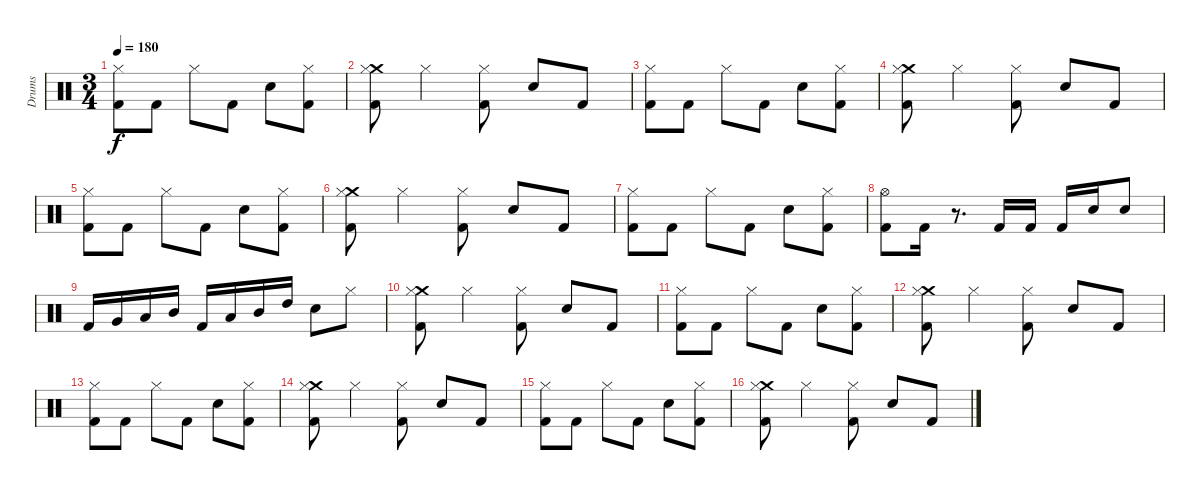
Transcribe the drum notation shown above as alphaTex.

\track ("Drums" "Drums") {instrument percussion}
\staff {score}
\articulation defaults
\ts (3 4)
\tempo 180
\clef neutral
\ks c
("Hi-Hat (closed)" "Kick (hit) 2").8{dy f} "Kick (hit) 2".8 "Hi-Hat (closed)".8 "Kick (hit) 2".8 "Snare (hit) 2".8 ("Hi-Hat (closed)" "Kick (hit) 2").8 |
("Crash medium (hit)" "Hi-Hat (closed)" "Kick (hit) 2").8 "Hi-Hat (closed)".4 ("Hi-Hat (closed)" "Kick (hit) 2").8 "Snare (hit) 2".8 "Kick (hit) 2".8 |
("Hi-Hat (closed)" "Kick (hit) 2").8 "Kick (hit) 2".8 "Hi-Hat (closed)".8 "Kick (hit) 2".8 "Snare (hit) 2".8 ("Hi-Hat (closed)" "Kick (hit) 2").8 |
("Crash medium (hit)" "Hi-Hat (closed)" "Kick (hit) 2").8 "Hi-Hat (closed)".4 ("Hi-Hat (closed)" "Kick (hit) 2").8 "Snare (hit) 2".8 "Kick (hit) 2".8 |
("Hi-Hat (closed)" "Kick (hit) 2").8 "Kick (hit) 2".8 "Hi-Hat (closed)".8 "Kick (hit) 2".8 "Snare (hit) 2".8 ("Hi-Hat (closed)" "Kick (hit) 2").8 |
("Crash medium (hit)" "Hi-Hat (closed)" "Kick (hit) 2").8 "Hi-Hat (closed)".4 ("Hi-Hat (closed)" "Kick (hit) 2").8 "Snare (hit) 2".8 "Kick (hit) 2".8 |
("Hi-Hat (closed)" "Kick (hit) 2").8 "Kick (hit) 2".8 "Hi-Hat (closed)".8 "Kick (hit) 2".8 "Snare (hit) 2".8 ("Hi-Hat (closed)" "Kick (hit) 2").8 |
("Hi-Hat (open)" "Kick (hit) 2").8 "Kick (hit) 2".16 r.8{d} "Kick (hit) 2".16 "Kick (hit) 2".16 "Kick (hit) 2".16 "Snare (hit) 2".16 "Snare (hit) 2".8 |
"Kick (hit) 2".16 "Very Low Tom (hit)".16 "Low Tom (hit)".16 "Mid Tom (hit)".16 "Kick (hit) 2".16 "Low Tom (hit)".16 "Mid Tom (hit)".16 "High Tom (hit)".16 "Snare (hit) 2".8 "Hi-Hat (closed)".8 |
("Crash medium (hit)" "Hi-Hat (closed)" "Kick (hit) 2").8 "Hi-Hat (closed)".4 ("Hi-Hat (closed)" "Kick (hit) 2").8 "Snare (hit) 2".8 "Kick (hit) 2".8 |
("Hi-Hat (closed)" "Kick (hit) 2").8 "Kick (hit) 2".8 "Hi-Hat (closed)".8 "Kick (hit) 2".8 "Snare (hit) 2".8 ("Hi-Hat (closed)" "Kick (hit) 2").8 |
("Crash medium (hit)" "Hi-Hat (closed)" "Kick (hit) 2").8 "Hi-Hat (closed)".4 ("Hi-Hat (closed)" "Kick (hit) 2").8 "Snare (hit) 2".8 "Kick (hit) 2".8 |
("Hi-Hat (closed)" "Kick (hit) 2").8 "Kick (hit) 2".8 "Hi-Hat (closed)".8 "Kick (hit) 2".8 "Snare (hit) 2".8 ("Hi-Hat (closed)" "Kick (hit) 2").8 |
("Crash medium (hit)" "Hi-Hat (closed)" "Kick (hit) 2").8 "Hi-Hat (closed)".4 ("Hi-Hat (closed)" "Kick (hit) 2").8 "Snare (hit) 2".8 "Kick (hit) 2".8 |
("Hi-Hat (closed)" "Kick (hit) 2").8 "Kick (hit) 2".8 "Hi-Hat (closed)".8 "Kick (hit) 2".8 "Snare (hit) 2".8 ("Hi-Hat (closed)" "Kick (hit) 2").8 |
("Crash medium (hit)" "Hi-Hat (closed)" "Kick (hit) 2").8 "Hi-Hat (closed)".4 ("Hi-Hat (closed)" "Kick (hit) 2").8 "Snare (hit) 2".8 "Kick (hit) 2".8
